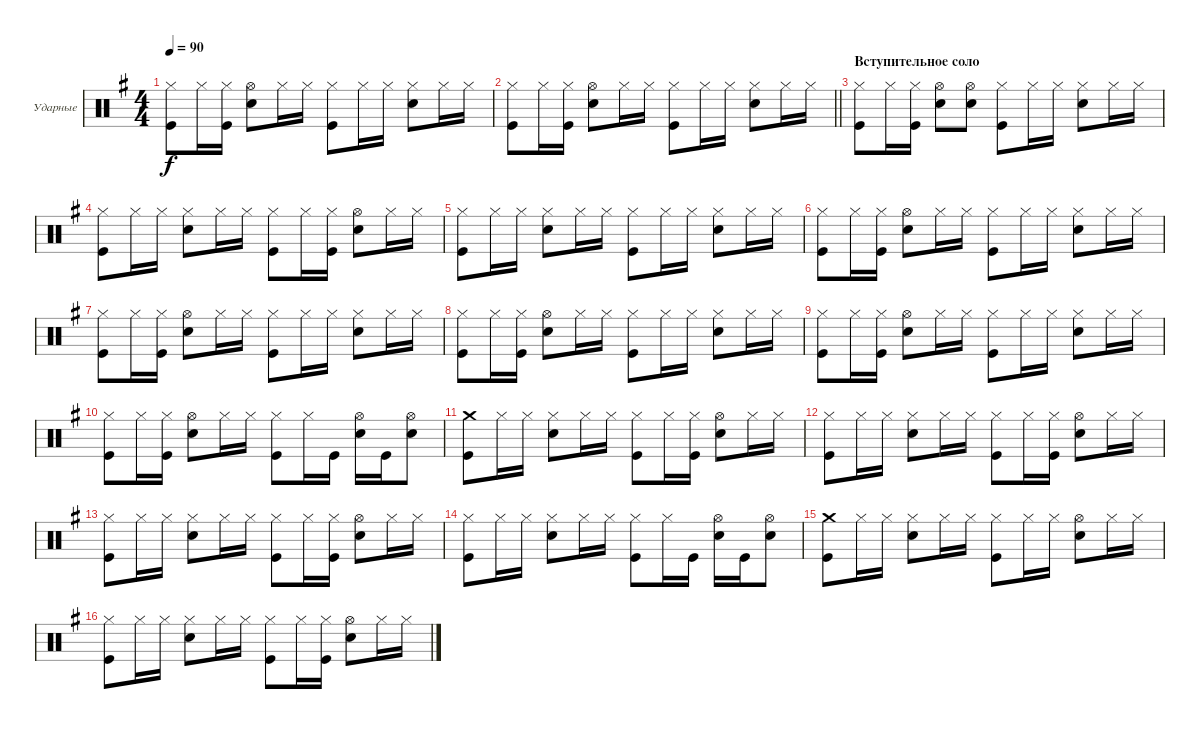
\bracketExtendMode groupsimilarinstruments
\firstSystemTrackNameOrientation horizontal
\otherSystemsTrackNameOrientation horizontal
\track ("Александр Львов" "Ударные") {instrument percussion}
\staff {score}
\articulation defaults
\ts (4 4)
\tempo 90
\clef neutral
\ks eminor
("Kick (hit)" "Hi-Hat (closed)").8{dy f} "Hi-Hat (closed)".16 ("Hi-Hat (closed)" "Kick (hit)").16 ("Hi-Hat (open)" "Snare (hit) 2").8 "Hi-Hat (closed)".16 "Hi-Hat (closed)".16 ("Hi-Hat (closed)" "Kick (hit)").8 "Hi-Hat (closed)".16 "Hi-Hat (closed)".16 ("Hi-Hat (closed)" "Snare (hit) 2").8 "Hi-Hat (closed)".16 "Hi-Hat (closed)".16 |
\barLineRight lightlight
("Kick (hit)" "Hi-Hat (closed)").8 "Hi-Hat (closed)".16 ("Hi-Hat (closed)" "Kick (hit)").16 ("Hi-Hat (open)" "Snare (hit) 2").8 "Hi-Hat (closed)".16 "Hi-Hat (closed)".16 ("Hi-Hat (closed)" "Kick (hit)").8 "Hi-Hat (closed)".16 "Hi-Hat (closed)".16 ("Hi-Hat (closed)" "Snare (hit) 2").8 "Hi-Hat (closed)".16 "Hi-Hat (closed)".16 |
\section ("" "Вступительное соло")
("Kick (hit)" "Hi-Hat (closed)").8 "Hi-Hat (closed)".16 ("Hi-Hat (closed)" "Kick (hit)").16 ("Hi-Hat (open)" "Snare (hit) 2").8 ("Hi-Hat (open)" "Snare (hit) 2").8 ("Hi-Hat (closed)" "Kick (hit)").8 "Hi-Hat (closed)".16 "Hi-Hat (closed)".16 ("Snare (hit) 2" "Hi-Hat (closed)").8 "Hi-Hat (closed)".16 "Hi-Hat (closed)".16 |
("Kick (hit)" "Hi-Hat (closed)").8 "Hi-Hat (closed)".16 "Hi-Hat (closed)".16 ("Snare (hit) 2" "Hi-Hat (closed)").8 "Hi-Hat (closed)".16 "Hi-Hat (closed)".16 ("Hi-Hat (closed)" "Kick (hit)").8 "Hi-Hat (closed)".16 ("Hi-Hat (closed)" "Kick (hit)").16 ("Snare (hit) 2" "Hi-Hat (open)").8 "Hi-Hat (closed)".16 "Hi-Hat (closed)".16 |
("Kick (hit)" "Hi-Hat (closed)").8 "Hi-Hat (closed)".16 "Hi-Hat (closed)".16 ("Hi-Hat (closed)" "Snare (hit) 2").8 "Hi-Hat (closed)".16 "Hi-Hat (closed)".16 ("Hi-Hat (closed)" "Kick (hit)").8 "Hi-Hat (closed)".16 "Hi-Hat (closed)".16 ("Hi-Hat (closed)" "Snare (hit) 2").8 "Hi-Hat (closed)".16 "Hi-Hat (closed)".16 |
("Kick (hit)" "Hi-Hat (closed)").8 "Hi-Hat (closed)".16 ("Hi-Hat (closed)" "Kick (hit)").16 ("Hi-Hat (open)" "Snare (hit) 2").8 "Hi-Hat (closed)".16 "Hi-Hat (closed)".16 ("Hi-Hat (closed)" "Kick (hit)").8 "Hi-Hat (closed)".16 "Hi-Hat (closed)".16 ("Hi-Hat (closed)" "Snare (hit) 2").8 "Hi-Hat (closed)".16 "Hi-Hat (closed)".16 |
("Kick (hit)" "Hi-Hat (closed)").8 "Hi-Hat (closed)".16 ("Hi-Hat (closed)" "Kick (hit)").16 ("Hi-Hat (open)" "Snare (hit) 2").8 "Hi-Hat (closed)".16 "Hi-Hat (closed)".16 ("Hi-Hat (closed)" "Kick (hit)").8 "Hi-Hat (closed)".16 "Hi-Hat (closed)".16 ("Hi-Hat (closed)" "Snare (hit) 2").8 "Hi-Hat (closed)".16 "Hi-Hat (closed)".16 |
("Kick (hit)" "Hi-Hat (closed)").8 "Hi-Hat (closed)".16 ("Hi-Hat (closed)" "Kick (hit)").16 ("Hi-Hat (open)" "Snare (hit) 2").8 "Hi-Hat (closed)".16 "Hi-Hat (closed)".16 ("Hi-Hat (closed)" "Kick (hit)").8 "Hi-Hat (closed)".16 "Hi-Hat (closed)".16 ("Hi-Hat (closed)" "Snare (hit) 2").8 "Hi-Hat (closed)".16 "Hi-Hat (closed)".16 |
("Kick (hit)" "Hi-Hat (closed)").8 "Hi-Hat (closed)".16 ("Hi-Hat (closed)" "Kick (hit)").16 ("Hi-Hat (open)" "Snare (hit) 2").8 "Hi-Hat (closed)".16 "Hi-Hat (closed)".16 ("Hi-Hat (closed)" "Kick (hit)").8 "Hi-Hat (closed)".16 "Hi-Hat (closed)".16 ("Hi-Hat (closed)" "Snare (hit) 2").8 "Hi-Hat (closed)".16 "Hi-Hat (closed)".16 |
("Kick (hit)" "Hi-Hat (closed)").8 "Hi-Hat (closed)".16 ("Hi-Hat (closed)" "Kick (hit)").16 ("Hi-Hat (open)" "Snare (hit) 2").8 "Hi-Hat (closed)".16 "Hi-Hat (closed)".16 ("Hi-Hat (closed)" "Kick (hit)").8 "Hi-Hat (closed)".16 "Kick (hit)".16 ("Hi-Hat (open)" "Snare (hit) 2").16 "Kick (hit)".16 ("Snare (hit) 2" "Hi-Hat (open)").8 |
("Kick (hit)" "Crash medium (hit)").8 "Hi-Hat (closed)".16 "Hi-Hat (closed)".16 ("Snare (hit) 2" "Hi-Hat (closed)").8 "Hi-Hat (closed)".16 "Hi-Hat (closed)".16 ("Hi-Hat (closed)" "Kick (hit)").8 "Hi-Hat (closed)".16 ("Hi-Hat (closed)" "Kick (hit)").16 ("Snare (hit) 2" "Hi-Hat (open)").8 "Hi-Hat (closed)".16 "Hi-Hat (closed)".16 |
("Kick (hit)" "Hi-Hat (closed)").8 "Hi-Hat (closed)".16 "Hi-Hat (closed)".16 ("Snare (hit) 2" "Hi-Hat (closed)").8 "Hi-Hat (closed)".16 "Hi-Hat (closed)".16 ("Hi-Hat (closed)" "Kick (hit)").8 "Hi-Hat (closed)".16 ("Hi-Hat (closed)" "Kick (hit)").16 ("Snare (hit) 2" "Hi-Hat (open)").8 "Hi-Hat (closed)".16 "Hi-Hat (closed)".16 |
("Kick (hit)" "Hi-Hat (closed)").8 "Hi-Hat (closed)".16 "Hi-Hat (closed)".16 ("Snare (hit) 2" "Hi-Hat (closed)").8 "Hi-Hat (closed)".16 "Hi-Hat (closed)".16 ("Hi-Hat (closed)" "Kick (hit)").8 "Hi-Hat (closed)".16 ("Hi-Hat (closed)" "Kick (hit)").16 ("Snare (hit) 2" "Hi-Hat (open)").8 "Hi-Hat (closed)".16 "Hi-Hat (closed)".16 |
("Kick (hit)" "Hi-Hat (closed)").8 "Hi-Hat (closed)".16 "Hi-Hat (closed)".16 ("Snare (hit) 2" "Hi-Hat (closed)").8 "Hi-Hat (closed)".16 "Hi-Hat (closed)".16 ("Hi-Hat (closed)" "Kick (hit)").8 "Hi-Hat (closed)".16 "Kick (hit)".16 ("Hi-Hat (open)" "Snare (hit) 2").16 "Kick (hit)".16 ("Snare (hit) 2" "Hi-Hat (open)").8 |
("Kick (hit)" "Crash medium (hit)").8 "Hi-Hat (closed)".16 "Hi-Hat (closed)".16 ("Snare (hit) 2" "Hi-Hat (closed)").8 "Hi-Hat (closed)".16 "Hi-Hat (closed)".16 ("Hi-Hat (closed)" "Kick (hit)").8 "Hi-Hat (closed)".16 "Hi-Hat (closed)".16 ("Snare (hit) 2" "Hi-Hat (open)").8 "Hi-Hat (closed)".16 "Hi-Hat (closed)".16 |
("Kick (hit)" "Hi-Hat (closed)").8 "Hi-Hat (closed)".16 "Hi-Hat (closed)".16 ("Snare (hit) 2" "Hi-Hat (closed)").8 "Hi-Hat (closed)".16 "Hi-Hat (closed)".16 ("Hi-Hat (closed)" "Kick (hit)").8 "Hi-Hat (closed)".16 ("Hi-Hat (closed)" "Kick (hit)").16 ("Snare (hit) 2" "Hi-Hat (open)").8 "Hi-Hat (closed)".16 "Hi-Hat (closed)".16
